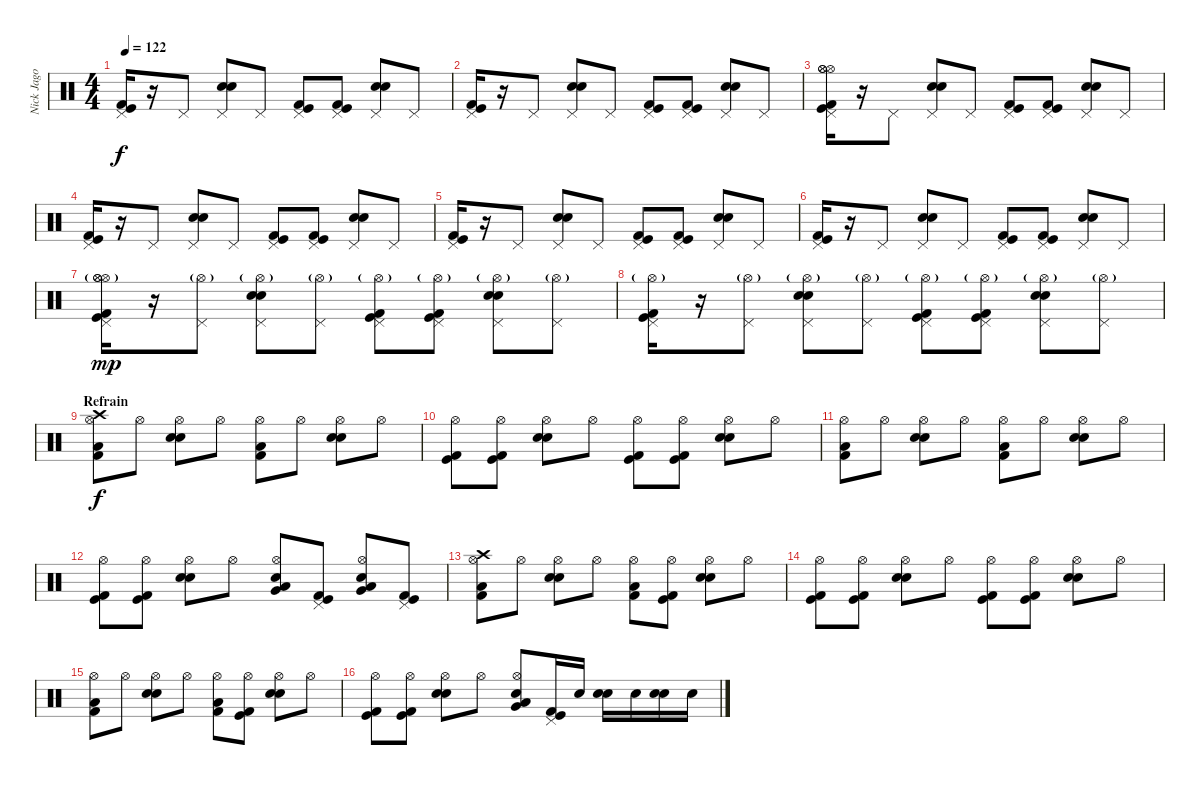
\track ("Nick Jago - Drums" "Nick Jago ") {instrument percussion}
\staff {score}
\articulation defaults
\ts (4 4)
\tempo 122
\clef neutral
\ks c
("Pedal Hi-Hat (hit)" "Kick (hit)" "Kick (hit) 2").16{dy f} r.16 "Pedal Hi-Hat (hit)".8 ("Pedal Hi-Hat (hit)" "Snare (hit) 2" "Electric Snare (hit)").8 "Pedal Hi-Hat (hit)".8 ("Pedal Hi-Hat (hit)" "Kick (hit)" "Kick (hit) 2").8 ("Pedal Hi-Hat (hit)" "Kick (hit)" "Kick (hit) 2").8 ("Pedal Hi-Hat (hit)" "Snare (hit) 2" "Electric Snare (hit)").8 "Pedal Hi-Hat (hit)".8 |
("Pedal Hi-Hat (hit)" "Kick (hit)" "Kick (hit) 2").16 r.16 "Pedal Hi-Hat (hit)".8 ("Pedal Hi-Hat (hit)" "Snare (hit) 2" "Electric Snare (hit)").8 "Pedal Hi-Hat (hit)".8 ("Pedal Hi-Hat (hit)" "Kick (hit)" "Kick (hit) 2").8 ("Pedal Hi-Hat (hit)" "Kick (hit)" "Kick (hit) 2").8 ("Pedal Hi-Hat (hit)" "Snare (hit) 2" "Electric Snare (hit)").8 "Pedal Hi-Hat (hit)".8 |
("Pedal Hi-Hat (hit)" "Hi-Hat (open)" "Hi-Hat (open)" "Hi-Hat (open)" "Kick (hit)" "Kick (hit) 2").16 r.16 "Pedal Hi-Hat (hit)".8 ("Pedal Hi-Hat (hit)" "Snare (hit) 2" "Electric Snare (hit)").8 "Pedal Hi-Hat (hit)".8 ("Pedal Hi-Hat (hit)" "Kick (hit)" "Kick (hit) 2").8 ("Pedal Hi-Hat (hit)" "Kick (hit)" "Kick (hit) 2").8 ("Pedal Hi-Hat (hit)" "Snare (hit) 2" "Electric Snare (hit)").8 "Pedal Hi-Hat (hit)".8 |
("Pedal Hi-Hat (hit)" "Kick (hit)" "Kick (hit) 2").16 r.16 "Pedal Hi-Hat (hit)".8 ("Pedal Hi-Hat (hit)" "Snare (hit) 2" "Electric Snare (hit)").8 "Pedal Hi-Hat (hit)".8 ("Pedal Hi-Hat (hit)" "Kick (hit)" "Kick (hit) 2").8 ("Pedal Hi-Hat (hit)" "Kick (hit)" "Kick (hit) 2").8 ("Pedal Hi-Hat (hit)" "Snare (hit) 2" "Electric Snare (hit)").8 "Pedal Hi-Hat (hit)".8 |
("Pedal Hi-Hat (hit)" "Kick (hit)" "Kick (hit) 2").16 r.16 "Pedal Hi-Hat (hit)".8 ("Pedal Hi-Hat (hit)" "Snare (hit) 2" "Electric Snare (hit)").8 "Pedal Hi-Hat (hit)".8 ("Pedal Hi-Hat (hit)" "Kick (hit)" "Kick (hit) 2").8 ("Pedal Hi-Hat (hit)" "Kick (hit)" "Kick (hit) 2").8 ("Pedal Hi-Hat (hit)" "Snare (hit) 2" "Electric Snare (hit)").8 "Pedal Hi-Hat (hit)".8 |
("Pedal Hi-Hat (hit)" "Kick (hit)" "Kick (hit) 2").16 r.16 "Pedal Hi-Hat (hit)".8 ("Pedal Hi-Hat (hit)" "Snare (hit) 2" "Electric Snare (hit)").8 "Pedal Hi-Hat (hit)".8 ("Pedal Hi-Hat (hit)" "Kick (hit)" "Kick (hit) 2").8 ("Pedal Hi-Hat (hit)" "Kick (hit)" "Kick (hit) 2").8 ("Pedal Hi-Hat (hit)" "Snare (hit) 2" "Electric Snare (hit)").8 "Pedal Hi-Hat (hit)".8 |
("Pedal Hi-Hat (hit)" "Hi-Hat (open)"{g} "Hi-Hat (open)" "Hi-Hat (open)" "Kick (hit)" "Kick (hit) 2").16{dy mp} r.16 ("Pedal Hi-Hat (hit)" "Hi-Hat (open)"{g}).8 ("Pedal Hi-Hat (hit)" "Hi-Hat (open)"{g} "Snare (hit) 2" "Electric Snare (hit)").8 ("Pedal Hi-Hat (hit)" "Hi-Hat (open)"{g}).8 ("Pedal Hi-Hat (hit)" "Hi-Hat (open)"{g} "Kick (hit)" "Kick (hit) 2").8 ("Pedal Hi-Hat (hit)" "Hi-Hat (open)"{g} "Kick (hit)" "Kick (hit) 2").8 ("Pedal Hi-Hat (hit)" "Hi-Hat (open)"{g} "Snare (hit) 2" "Electric Snare (hit)").8 ("Pedal Hi-Hat (hit)" "Hi-Hat (open)"{g}).8 |
("Pedal Hi-Hat (hit)" "Hi-Hat (open)"{g} "Kick (hit)" "Kick (hit) 2").16 r.16 ("Pedal Hi-Hat (hit)" "Hi-Hat (open)"{g}).8 ("Pedal Hi-Hat (hit)" "Hi-Hat (open)"{g} "Snare (hit) 2" "Electric Snare (hit)").8 ("Pedal Hi-Hat (hit)" "Hi-Hat (open)"{g}).8 ("Pedal Hi-Hat (hit)" "Hi-Hat (open)"{g} "Kick (hit)" "Kick (hit) 2").8 ("Pedal Hi-Hat (hit)" "Hi-Hat (open)"{g} "Kick (hit)" "Kick (hit) 2").8 ("Pedal Hi-Hat (hit)" "Hi-Hat (open)"{g} "Snare (hit) 2" "Electric Snare (hit)").8 ("Pedal Hi-Hat (hit)" "Hi-Hat (open)"{g}).8 |
\section ("" "Refrain")
("Hi-Hat (open)" "Crash high (hit)" "Low Floor Tom (hit)" "Kick (hit) 2").8{dy f} "Hi-Hat (open)".8 ("Hi-Hat (open)" "Snare (hit) 2" "Electric Snare (hit)").8 "Hi-Hat (open)".8 ("Hi-Hat (open)" "Low Floor Tom (hit)" "Kick (hit) 2").8 "Hi-Hat (open)".8 ("Hi-Hat (open)" "Snare (hit) 2" "Electric Snare (hit)").8 "Hi-Hat (open)".8 |
("Hi-Hat (open)" "Kick (hit)" "Kick (hit) 2").8 ("Hi-Hat (open)" "Kick (hit)" "Kick (hit) 2").8 ("Hi-Hat (open)" "Snare (hit) 2" "Electric Snare (hit)").8 "Hi-Hat (open)".8 ("Hi-Hat (open)" "Kick (hit)" "Kick (hit) 2").8 ("Hi-Hat (open)" "Kick (hit)" "Kick (hit) 2").8 ("Hi-Hat (open)" "Snare (hit) 2" "Electric Snare (hit)").8 "Hi-Hat (open)".8 |
("Hi-Hat (open)" "Low Floor Tom (hit)" "Kick (hit) 2").8 "Hi-Hat (open)".8 ("Hi-Hat (open)" "Snare (hit) 2" "Electric Snare (hit)").8 "Hi-Hat (open)".8 ("Hi-Hat (open)" "Low Floor Tom (hit)" "Kick (hit) 2").8 "Hi-Hat (open)".8 ("Hi-Hat (open)" "Snare (hit) 2" "Electric Snare (hit)").8 "Hi-Hat (open)".8 |
("Hi-Hat (open)" "Kick (hit)" "Kick (hit) 2").8 ("Hi-Hat (open)" "Kick (hit)" "Kick (hit) 2").8 ("Hi-Hat (open)" "Snare (hit) 2" "Electric Snare (hit)").8 "Hi-Hat (open)".8 ("Hi-Hat (open)" "Electric Snare (hit)" "Low Floor Tom (hit)" "Very Low Tom (hit)").8 ("Pedal Hi-Hat (hit)" "Kick (hit)" "Kick (hit) 2").8 ("Hi-Hat (open)" "Electric Snare (hit)" "Very Low Tom (hit)" "Low Floor Tom (hit)").8 ("Pedal Hi-Hat (hit)" "Kick (hit)" "Kick (hit) 2").8 |
("Hi-Hat (open)" "Crash high (hit)" "Low Floor Tom (hit)" "Kick (hit) 2").8 "Hi-Hat (open)".8 ("Hi-Hat (open)" "Snare (hit) 2" "Electric Snare (hit)").8 "Hi-Hat (open)".8 ("Hi-Hat (open)" "Low Floor Tom (hit)" "Kick (hit) 2").8 ("Hi-Hat (open)" "Kick (hit)" "Kick (hit) 2").8 ("Hi-Hat (open)" "Snare (hit) 2" "Electric Snare (hit)").8 "Hi-Hat (open)".8 |
("Hi-Hat (open)" "Kick (hit)" "Kick (hit) 2").8 ("Hi-Hat (open)" "Kick (hit)" "Kick (hit) 2").8 ("Hi-Hat (open)" "Snare (hit) 2" "Electric Snare (hit)").8 "Hi-Hat (open)".8 ("Hi-Hat (open)" "Kick (hit)" "Kick (hit) 2").8 ("Hi-Hat (open)" "Kick (hit)" "Kick (hit) 2").8 ("Hi-Hat (open)" "Snare (hit) 2" "Electric Snare (hit)").8 "Hi-Hat (open)".8 |
("Hi-Hat (open)" "Low Floor Tom (hit)" "Kick (hit) 2").8 "Hi-Hat (open)".8 ("Hi-Hat (open)" "Snare (hit) 2" "Electric Snare (hit)").8 "Hi-Hat (open)".8 ("Hi-Hat (open)" "Low Floor Tom (hit)" "Kick (hit) 2").8 ("Hi-Hat (open)" "Kick (hit)" "Kick (hit) 2").8 ("Hi-Hat (open)" "Snare (hit) 2" "Electric Snare (hit)").8 "Hi-Hat (open)".8 |
("Hi-Hat (open)" "Kick (hit)" "Kick (hit) 2").8 ("Hi-Hat (open)" "Kick (hit)" "Kick (hit) 2").8 ("Hi-Hat (open)" "Snare (hit) 2" "Electric Snare (hit)").8 "Hi-Hat (open)".8 ("Hi-Hat (open)" "Electric Snare (hit)" "Low Floor Tom (hit)" "Very Low Tom (hit)").8 ("Pedal Hi-Hat (hit)" "Kick (hit)" "Kick (hit) 2").16 "Electric Snare (hit)".16 ("Electric Snare (hit)" "Snare (hit) 2").16 "Electric Snare (hit)".16 ("Electric Snare (hit)" "Snare (hit) 2").16 "Electric Snare (hit)".16
